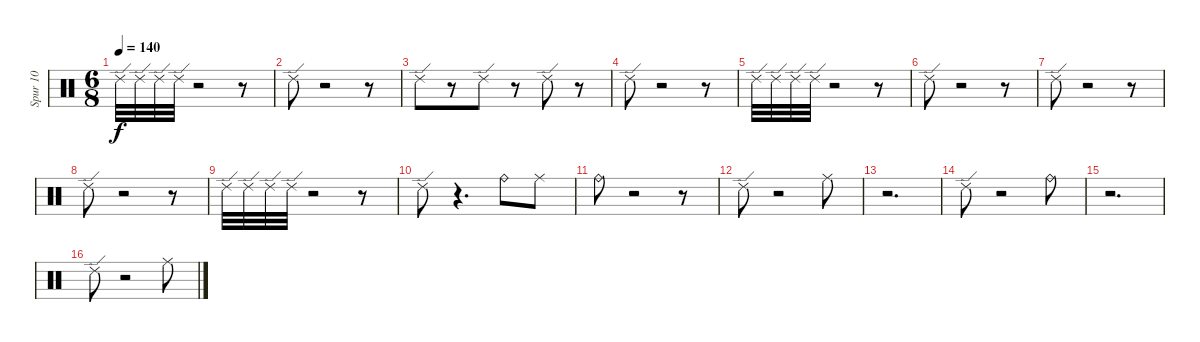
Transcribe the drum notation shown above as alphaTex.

\track ("Spur 10" "Spur 10") {instrument percussion}
\staff {score}
\articulation defaults
\ts (6 8)
\tempo 140
\clef neutral
\ks c "Ride (edge) 2".32{dy f} "Ride (edge) 2".32 "Ride (edge) 2".32 "Ride (edge) 2".32
r.2 r.8 |
"Ride (edge) 2".8 r.2 r.8 |
"Ride (edge) 2".8 r.8 "Ride (edge) 2".8 r.8 "Ride (edge) 2".8 r.8 |
"Ride (edge) 2".8 r.2 r.8 |
"Ride (edge) 2".32 "Ride (edge) 2".32 "Ride (edge) 2".32 "Ride (edge) 2".32 r.2 r.8 |
"Ride (edge) 2".8 r.2 r.8 |
"Ride (edge) 2".8 r.2 r.8 |
"Ride (edge) 2".8 r.2 r.8 |
"Ride (edge) 2".32 "Ride (edge) 2".32 "Ride (edge) 2".32 "Ride (edge) 2".32 r.2 r.8 |
"Ride (edge) 2".8 r.4{d} "Ride (bell)".8 "Ride (middle)".8 |
"Ride (bell)".8 r.2 r.8 |
"Ride (edge) 2".8 r.2 "Ride (middle)".8 |
r.2{d} |
"Ride (edge) 2".8 r.2 "Ride (bell)".8 |
r.2{d} |
"Ride (edge) 2".8 r.2 "Ride (middle)".8
